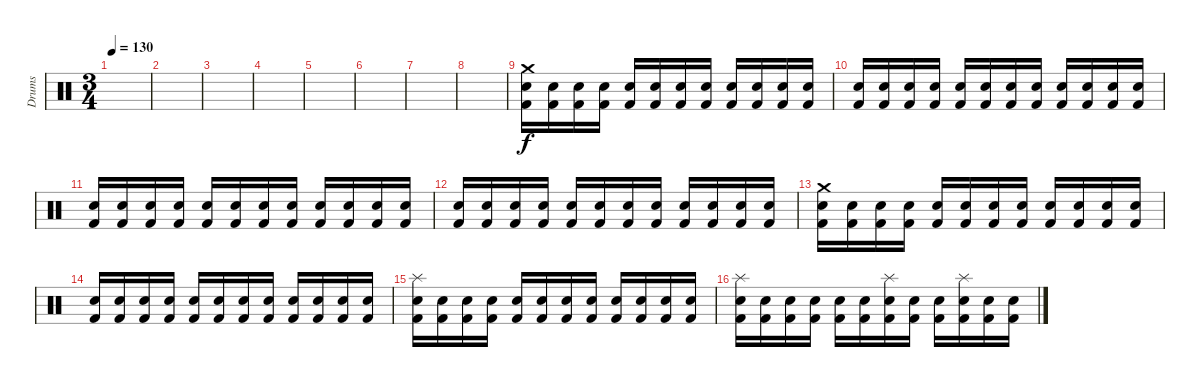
\track ("Drums" "Drums") {instrument percussion}
\staff {score}
\articulation defaults
\ts (3 4)
\tempo 130
\tempo 112
\tempo 130
\clef neutral
\ks c
|
|
|
|
|
|
|
|
("Kick (hit) 2" "Snare (hit) 2" "Crash medium (hit)").16 ("Kick (hit) 2" "Snare (hit) 2").16 ("Kick (hit) 2" "Snare (hit) 2").16 ("Kick (hit) 2" "Snare (hit) 2").16 ("Kick (hit) 2" "Snare (hit) 2").16 ("Kick (hit) 2" "Snare (hit) 2").16 ("Kick (hit) 2" "Snare (hit) 2").16 ("Kick (hit) 2" "Snare (hit) 2").16 ("Kick (hit) 2" "Snare (hit) 2").16 ("Kick (hit) 2" "Snare (hit) 2").16 ("Kick (hit) 2" "Snare (hit) 2").16 ("Kick (hit) 2" "Snare (hit) 2").16 |
("Kick (hit) 2" "Snare (hit) 2").16 ("Kick (hit) 2" "Snare (hit) 2").16 ("Kick (hit) 2" "Snare (hit) 2").16 ("Kick (hit) 2" "Snare (hit) 2").16 ("Kick (hit) 2" "Snare (hit) 2").16 ("Kick (hit) 2" "Snare (hit) 2").16 ("Kick (hit) 2" "Snare (hit) 2").16 ("Kick (hit) 2" "Snare (hit) 2").16 ("Kick (hit) 2" "Snare (hit) 2").16 ("Kick (hit) 2" "Snare (hit) 2").16 ("Kick (hit) 2" "Snare (hit) 2").16 ("Kick (hit) 2" "Snare (hit) 2").16 |
("Kick (hit) 2" "Snare (hit) 2").16 ("Kick (hit) 2" "Snare (hit) 2").16 ("Kick (hit) 2" "Snare (hit) 2").16 ("Kick (hit) 2" "Snare (hit) 2").16 ("Kick (hit) 2" "Snare (hit) 2").16 ("Kick (hit) 2" "Snare (hit) 2").16 ("Kick (hit) 2" "Snare (hit) 2").16 ("Kick (hit) 2" "Snare (hit) 2").16 ("Kick (hit) 2" "Snare (hit) 2").16 ("Kick (hit) 2" "Snare (hit) 2").16 ("Kick (hit) 2" "Snare (hit) 2").16 ("Kick (hit) 2" "Snare (hit) 2").16 |
("Kick (hit) 2" "Snare (hit) 2").16 ("Kick (hit) 2" "Snare (hit) 2").16 ("Kick (hit) 2" "Snare (hit) 2").16 ("Kick (hit) 2" "Snare (hit) 2").16 ("Kick (hit) 2" "Snare (hit) 2").16 ("Kick (hit) 2" "Snare (hit) 2").16 ("Kick (hit) 2" "Snare (hit) 2").16 ("Kick (hit) 2" "Snare (hit) 2").16 ("Kick (hit) 2" "Snare (hit) 2").16 ("Kick (hit) 2" "Snare (hit) 2").16 ("Kick (hit) 2" "Snare (hit) 2").16 ("Kick (hit) 2" "Snare (hit) 2").16 |
("Kick (hit) 2" "Snare (hit) 2" "Crash medium (hit)").16 ("Kick (hit) 2" "Snare (hit) 2").16 ("Kick (hit) 2" "Snare (hit) 2").16 ("Kick (hit) 2" "Snare (hit) 2").16 ("Kick (hit) 2" "Snare (hit) 2").16 ("Kick (hit) 2" "Snare (hit) 2").16 ("Kick (hit) 2" "Snare (hit) 2").16 ("Kick (hit) 2" "Snare (hit) 2").16 ("Kick (hit) 2" "Snare (hit) 2").16 ("Kick (hit) 2" "Snare (hit) 2").16 ("Kick (hit) 2" "Snare (hit) 2").16 ("Kick (hit) 2" "Snare (hit) 2").16 |
("Kick (hit) 2" "Snare (hit) 2").16 ("Kick (hit) 2" "Snare (hit) 2").16 ("Kick (hit) 2" "Snare (hit) 2").16 ("Kick (hit) 2" "Snare (hit) 2").16 ("Kick (hit) 2" "Snare (hit) 2").16 ("Kick (hit) 2" "Snare (hit) 2").16 ("Kick (hit) 2" "Snare (hit) 2").16 ("Kick (hit) 2" "Snare (hit) 2").16 ("Kick (hit) 2" "Snare (hit) 2").16 ("Kick (hit) 2" "Snare (hit) 2").16 ("Kick (hit) 2" "Snare (hit) 2").16 ("Kick (hit) 2" "Snare (hit) 2").16 |
("Kick (hit) 2" "Snare (hit) 2" "Splash (hit)").16 ("Kick (hit) 2" "Snare (hit) 2").16 ("Kick (hit) 2" "Snare (hit) 2").16 ("Kick (hit) 2" "Snare (hit) 2").16 ("Kick (hit) 2" "Snare (hit) 2").16 ("Kick (hit) 2" "Snare (hit) 2").16 ("Kick (hit) 2" "Snare (hit) 2").16 ("Kick (hit) 2" "Snare (hit) 2").16 ("Kick (hit) 2" "Snare (hit) 2").16 ("Kick (hit) 2" "Snare (hit) 2").16 ("Kick (hit) 2" "Snare (hit) 2").16 ("Kick (hit) 2" "Snare (hit) 2").16 |
("Kick (hit) 2" "Snare (hit) 2" "Splash (hit)").16 ("Kick (hit) 2" "Snare (hit) 2").16 ("Kick (hit) 2" "Snare (hit) 2").16 ("Kick (hit) 2" "Snare (hit) 2").16 ("Kick (hit) 2" "Snare (hit) 2").16 ("Kick (hit) 2" "Snare (hit) 2").16 ("Kick (hit) 2" "Snare (hit) 2" "Splash (hit)").16 ("Kick (hit) 2" "Snare (hit) 2").16 ("Kick (hit) 2" "Snare (hit) 2").16 ("Kick (hit) 2" "Snare (hit) 2" "Splash (hit)").16 ("Kick (hit) 2" "Snare (hit) 2").16 ("Kick (hit) 2" "Snare (hit) 2").16
